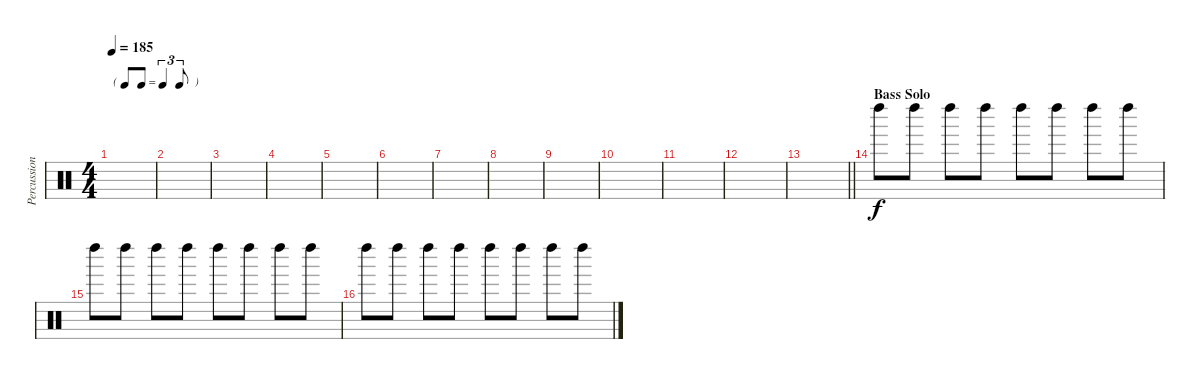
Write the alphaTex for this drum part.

\track ("Percussion" "Percussion") {instrument percussion}
\staff {score}
\articulation defaults
\ts (4 4)
\tf triplet8th
\tempo 185
\clef neutral
\ks c
|
|
|
|
|
|
|
|
|
|
|
|
\barLineRight lightlight
|
\section ("" "Bass Solo")
"Left Maraca (hit)".8 "Left Maraca (hit)".8 "Left Maraca (hit)".8 "Left Maraca (hit)".8 "Left Maraca (hit)".8 "Left Maraca (hit)".8 "Left Maraca (hit)".8 "Left Maraca (hit)".8 |
"Left Maraca (hit)".8 "Left Maraca (hit)".8 "Left Maraca (hit)".8 "Left Maraca (hit)".8 "Left Maraca (hit)".8 "Left Maraca (hit)".8 "Left Maraca (hit)".8 "Left Maraca (hit)".8 |
"Left Maraca (hit)".8 "Left Maraca (hit)".8 "Left Maraca (hit)".8 "Left Maraca (hit)".8 "Left Maraca (hit)".8 "Left Maraca (hit)".8 "Left Maraca (hit)".8 "Left Maraca (hit)".8
